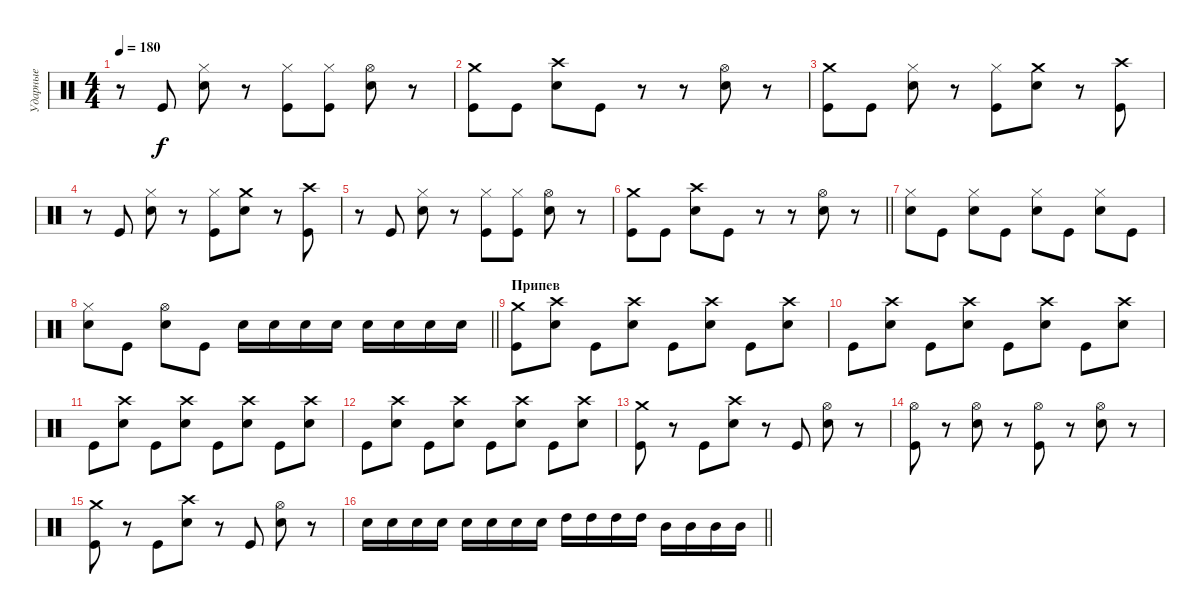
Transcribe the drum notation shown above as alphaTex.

\track ("Ударные" "Ударные") {instrument percussion}
\staff {score}
\articulation defaults
\ts (4 4)
\tempo 180
\clef neutral
\ks c
r.8{dy f} "Kick (hit)".8 ("Hi-Hat (closed)" "Electric Snare (hit)").8 r.8 ("Hi-Hat (closed)" "Kick (hit)").8 ("Hi-Hat (closed)" "Kick (hit)").8 ("Hi-Hat (open)" "Electric Snare (hit)").8 r.8 |
("Crash medium (hit)" "Kick (hit)").8 "Kick (hit)".8 ("Crash high (hit)" "Electric Snare (hit)").8 "Kick (hit)".8 r.8 r.8 ("Hi-Hat (open)" "Electric Snare (hit)").8 r.8 |
("Crash medium (hit)" "Kick (hit)").8 "Kick (hit)".8 ("Hi-Hat (closed)" "Electric Snare (hit)").8 r.8 ("Hi-Hat (closed)" "Kick (hit)").8 ("Crash medium (hit)" "Electric Snare (hit)").8 r.8 ("Crash high (hit)" "Kick (hit)").8 |
r.8 "Kick (hit)".8 ("Hi-Hat (closed)" "Electric Snare (hit)").8 r.8 ("Hi-Hat (closed)" "Kick (hit)").8 ("Crash medium (hit)" "Electric Snare (hit)").8 r.8 ("Crash high (hit)" "Kick (hit)").8 |
r.8 "Kick (hit)".8 ("Hi-Hat (closed)" "Electric Snare (hit)").8 r.8 ("Hi-Hat (closed)" "Kick (hit)").8 ("Hi-Hat (closed)" "Kick (hit)").8 ("Hi-Hat (open)" "Electric Snare (hit)").8 r.8 |
\barLineRight lightlight
("Crash medium (hit)" "Kick (hit)").8 "Kick (hit)".8 ("Crash high (hit)" "Electric Snare (hit)").8 "Kick (hit)".8 r.8 r.8 ("Hi-Hat (open)" "Electric Snare (hit)").8 r.8 |
\section ("" " ")
("Hi-Hat (closed)" "Electric Snare (hit)").8 "Kick (hit)".8 ("Hi-Hat (closed)" "Electric Snare (hit)").8 "Kick (hit)".8 ("Hi-Hat (closed)" "Electric Snare (hit)").8 "Kick (hit)".8 ("Hi-Hat (closed)" "Electric Snare (hit)").8 "Kick (hit)".8 |
\barLineRight lightlight
("Hi-Hat (closed)" "Electric Snare (hit)").8 "Kick (hit)".8 ("Hi-Hat (open)" "Electric Snare (hit)").8 "Kick (hit)".8 "Electric Snare (hit)".16 "Electric Snare (hit)".16 "Electric Snare (hit)".16 "Electric Snare (hit)".16 "Electric Snare (hit)".16 "Electric Snare (hit)".16 "Electric Snare (hit)".16 "Electric Snare (hit)".16 |
\section ("" "Припев")
("Crash medium (hit)" "Kick (hit)").8 ("Crash high (hit)" "Electric Snare (hit)").8 "Kick (hit)".8 ("Crash high (hit)" "Electric Snare (hit)").8 "Kick (hit)".8 ("Crash high (hit)" "Electric Snare (hit)").8 "Kick (hit)".8 ("Crash high (hit)" "Electric Snare (hit)").8 |
"Kick (hit)".8 ("Crash high (hit)" "Electric Snare (hit)").8 "Kick (hit)".8 ("Crash high (hit)" "Electric Snare (hit)").8 "Kick (hit)".8 ("Crash high (hit)" "Electric Snare (hit)").8 "Kick (hit)".8 ("Crash high (hit)" "Electric Snare (hit)").8 |
"Kick (hit)".8 ("Crash high (hit)" "Electric Snare (hit)").8 "Kick (hit)".8 ("Crash high (hit)" "Electric Snare (hit)").8 "Kick (hit)".8 ("Crash high (hit)" "Electric Snare (hit)").8 "Kick (hit)".8 ("Crash high (hit)" "Electric Snare (hit)").8 |
"Kick (hit)".8 ("Crash high (hit)" "Electric Snare (hit)").8 "Kick (hit)".8 ("Crash high (hit)" "Electric Snare (hit)").8 "Kick (hit)".8 ("Crash high (hit)" "Electric Snare (hit)").8 "Kick (hit)".8 ("Crash high (hit)" "Electric Snare (hit)").8 |
("Crash medium (hit)" "Kick (hit)").8 r.8 "Kick (hit)".8 ("Crash high (hit)" "Electric Snare (hit)").8 r.8 "Kick (hit)".8 ("Hi-Hat (open)" "Electric Snare (hit)").8 r.8 |
("Hi-Hat (open)" "Kick (hit)").8 r.8 ("Hi-Hat (open)" "Electric Snare (hit)").8 r.8 ("Hi-Hat (open)" "Kick (hit)").8 r.8 ("Hi-Hat (open)" "Electric Snare (hit)").8 r.8 |
("Crash medium (hit)" "Kick (hit)").8 r.8 "Kick (hit)".8 ("Crash high (hit)" "Electric Snare (hit)").8 r.8 "Kick (hit)".8 ("Hi-Hat (open)" "Electric Snare (hit)").8 r.8 |
\barLineRight lightlight "Electric Snare (hit)".16 "Electric Snare (hit)".16 "Electric Snare (hit)".16 "Electric Snare (hit)".16 "Electric Snare (hit)".16 "Electric Snare (hit)".16 "Electric Snare (hit)".16 "Electric Snare (hit)".16 "High Tom (hit)".16 "High Tom (hit)".16 "High Tom (hit)".16 "High Tom (hit)".16 "Mid Tom (hit)".16 "Mid Tom (hit)".16 "Mid Tom (hit)".16 "Mid Tom (hit)".16
